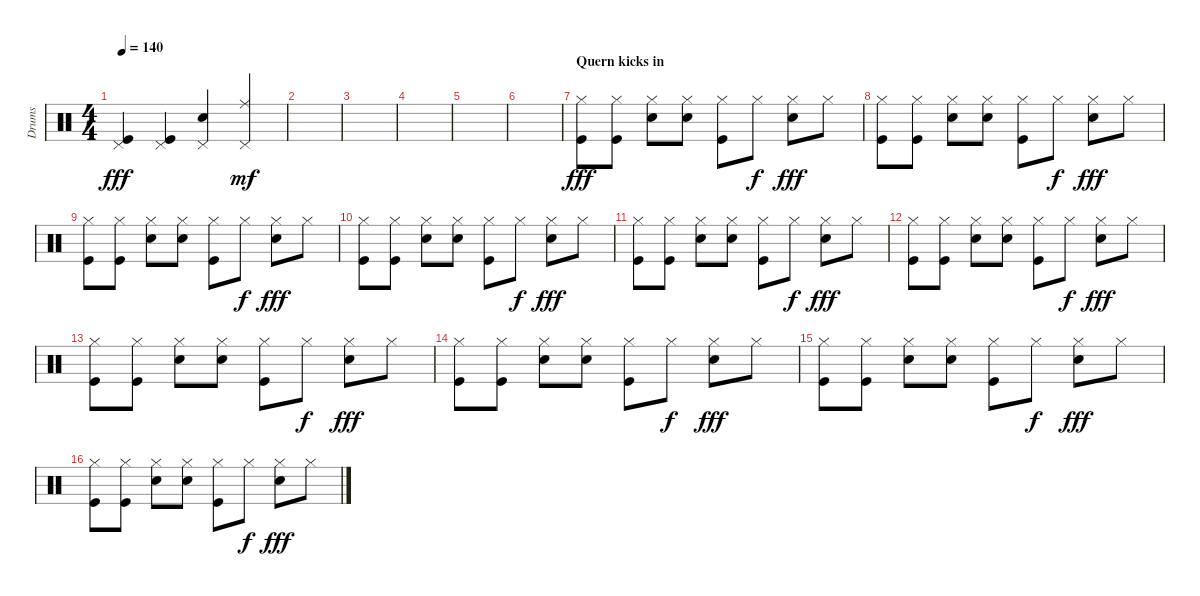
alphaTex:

\track ("Drums" "Drums") {instrument percussion}
\staff {score}
\articulation defaults
\ts (4 4)
\tempo 140
\clef neutral
\ks c
("Kick (hit)" "Pedal Hi-Hat (hit)").4{dy fff} ("Kick (hit)" "Pedal Hi-Hat (hit)").4 ("Snare (hit) 2" "Pedal Hi-Hat (hit)").4 ("Ride (middle)" "Pedal Hi-Hat (hit)").4{dy mf} |
|
|
|
|
|
\section ("" "Quern kicks in")
("Kick (hit)" "Hi-Hat (closed)").8{dy fff} ("Kick (hit)" "Hi-Hat (closed)").8 ("Snare (hit) 2" "Hi-Hat (closed)").8 ("Snare (hit) 2" "Hi-Hat (closed)").8 ("Kick (hit)" "Hi-Hat (closed)").8 "Hi-Hat (closed)".8{dy f} ("Snare (hit) 2" "Hi-Hat (closed)").8{dy fff} "Hi-Hat (closed)".8 |
("Kick (hit)" "Hi-Hat (closed)").8 ("Kick (hit)" "Hi-Hat (closed)").8 ("Snare (hit) 2" "Hi-Hat (closed)").8 ("Snare (hit) 2" "Hi-Hat (closed)").8 ("Kick (hit)" "Hi-Hat (closed)").8 "Hi-Hat (closed)".8{dy f} ("Snare (hit) 2" "Hi-Hat (closed)").8{dy fff} "Hi-Hat (closed)".8 |
("Kick (hit)" "Hi-Hat (closed)").8 ("Kick (hit)" "Hi-Hat (closed)").8 ("Snare (hit) 2" "Hi-Hat (closed)").8 ("Snare (hit) 2" "Hi-Hat (closed)").8 ("Kick (hit)" "Hi-Hat (closed)").8 "Hi-Hat (closed)".8{dy f} ("Snare (hit) 2" "Hi-Hat (closed)").8{dy fff} "Hi-Hat (closed)".8 |
("Kick (hit)" "Hi-Hat (closed)").8 ("Kick (hit)" "Hi-Hat (closed)").8 ("Snare (hit) 2" "Hi-Hat (closed)").8 ("Snare (hit) 2" "Hi-Hat (closed)").8 ("Kick (hit)" "Hi-Hat (closed)").8 "Hi-Hat (closed)".8{dy f} ("Snare (hit) 2" "Hi-Hat (closed)").8{dy fff} "Hi-Hat (closed)".8 |
("Kick (hit)" "Hi-Hat (closed)").8 ("Kick (hit)" "Hi-Hat (closed)").8 ("Snare (hit) 2" "Hi-Hat (closed)").8 ("Snare (hit) 2" "Hi-Hat (closed)").8 ("Kick (hit)" "Hi-Hat (closed)").8 "Hi-Hat (closed)".8{dy f} ("Snare (hit) 2" "Hi-Hat (closed)").8{dy fff} "Hi-Hat (closed)".8 |
("Kick (hit)" "Hi-Hat (closed)").8 ("Kick (hit)" "Hi-Hat (closed)").8 ("Snare (hit) 2" "Hi-Hat (closed)").8 ("Snare (hit) 2" "Hi-Hat (closed)").8 ("Kick (hit)" "Hi-Hat (closed)").8 "Hi-Hat (closed)".8{dy f} ("Snare (hit) 2" "Hi-Hat (closed)").8{dy fff} "Hi-Hat (closed)".8 |
("Kick (hit)" "Hi-Hat (closed)").8 ("Kick (hit)" "Hi-Hat (closed)").8 ("Snare (hit) 2" "Hi-Hat (closed)").8 ("Snare (hit) 2" "Hi-Hat (closed)").8 ("Kick (hit)" "Hi-Hat (closed)").8 "Hi-Hat (closed)".8{dy f} ("Snare (hit) 2" "Hi-Hat (closed)").8{dy fff} "Hi-Hat (closed)".8 |
("Kick (hit)" "Hi-Hat (closed)").8 ("Kick (hit)" "Hi-Hat (closed)").8 ("Snare (hit) 2" "Hi-Hat (closed)").8 ("Snare (hit) 2" "Hi-Hat (closed)").8 ("Kick (hit)" "Hi-Hat (closed)").8 "Hi-Hat (closed)".8{dy f} ("Snare (hit) 2" "Hi-Hat (closed)").8{dy fff} "Hi-Hat (closed)".8 |
("Kick (hit)" "Hi-Hat (closed)").8 ("Kick (hit)" "Hi-Hat (closed)").8 ("Snare (hit) 2" "Hi-Hat (closed)").8 ("Snare (hit) 2" "Hi-Hat (closed)").8 ("Kick (hit)" "Hi-Hat (closed)").8 "Hi-Hat (closed)".8{dy f} ("Snare (hit) 2" "Hi-Hat (closed)").8{dy fff} "Hi-Hat (closed)".8 |
("Kick (hit)" "Hi-Hat (closed)").8 ("Kick (hit)" "Hi-Hat (closed)").8 ("Snare (hit) 2" "Hi-Hat (closed)").8 ("Snare (hit) 2" "Hi-Hat (closed)").8 ("Kick (hit)" "Hi-Hat (closed)").8 "Hi-Hat (closed)".8{dy f} ("Snare (hit) 2" "Hi-Hat (closed)").8{dy fff} "Hi-Hat (closed)".8
